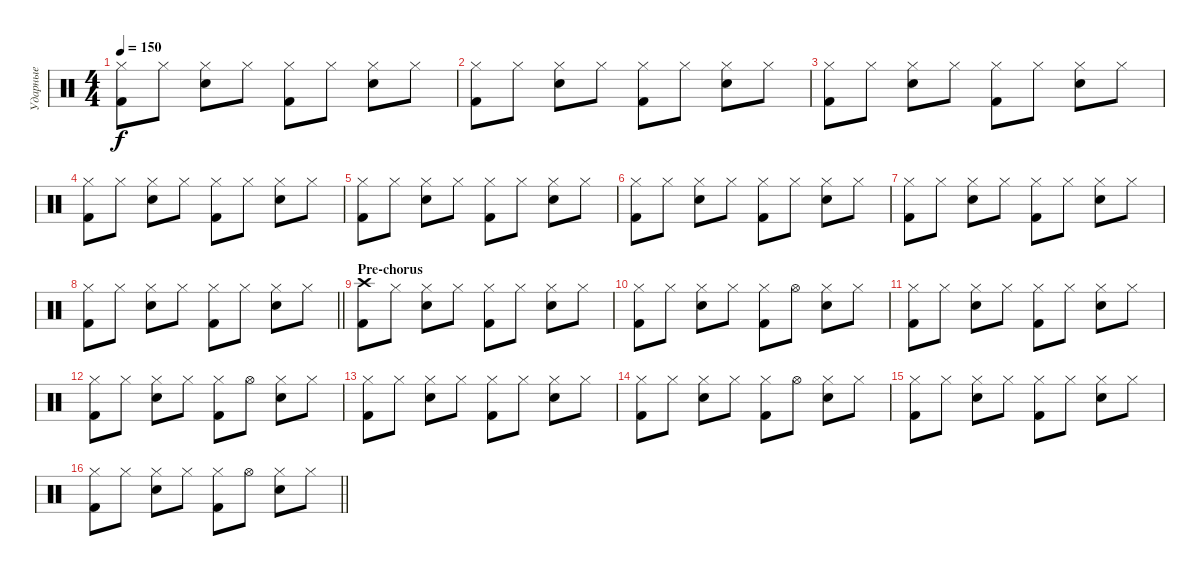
\track ("Ударные" "Ударные") {instrument percussion}
\staff {score}
\articulation defaults
\ts (4 4)
\tempo 150
\clef neutral
\ks c
("Hi-Hat (closed)" "Kick (hit) 2").8{dy f} "Hi-Hat (closed)".8 ("Hi-Hat (closed)" "Electric Snare (hit)").8 "Hi-Hat (closed)".8 ("Hi-Hat (closed)" "Kick (hit) 2").8 "Hi-Hat (closed)".8 ("Hi-Hat (closed)" "Electric Snare (hit)").8 "Hi-Hat (closed)".8 |
("Hi-Hat (closed)" "Kick (hit) 2").8 "Hi-Hat (closed)".8 ("Hi-Hat (closed)" "Electric Snare (hit)").8 "Hi-Hat (closed)".8 ("Hi-Hat (closed)" "Kick (hit) 2").8 "Hi-Hat (closed)".8 ("Hi-Hat (closed)" "Electric Snare (hit)").8 "Hi-Hat (closed)".8 |
("Hi-Hat (closed)" "Kick (hit) 2").8 "Hi-Hat (closed)".8 ("Hi-Hat (closed)" "Electric Snare (hit)").8 "Hi-Hat (closed)".8 ("Hi-Hat (closed)" "Kick (hit) 2").8 "Hi-Hat (closed)".8 ("Hi-Hat (closed)" "Electric Snare (hit)").8 "Hi-Hat (closed)".8 |
("Hi-Hat (closed)" "Kick (hit) 2").8 "Hi-Hat (closed)".8 ("Hi-Hat (closed)" "Electric Snare (hit)").8 "Hi-Hat (closed)".8 ("Hi-Hat (closed)" "Kick (hit) 2").8 "Hi-Hat (closed)".8 ("Hi-Hat (closed)" "Electric Snare (hit)").8 "Hi-Hat (closed)".8 |
("Hi-Hat (closed)" "Kick (hit) 2").8 "Hi-Hat (closed)".8 ("Hi-Hat (closed)" "Electric Snare (hit)").8 "Hi-Hat (closed)".8 ("Hi-Hat (closed)" "Kick (hit) 2").8 "Hi-Hat (closed)".8 ("Hi-Hat (closed)" "Electric Snare (hit)").8 "Hi-Hat (closed)".8 |
("Hi-Hat (closed)" "Kick (hit) 2").8 "Hi-Hat (closed)".8 ("Hi-Hat (closed)" "Electric Snare (hit)").8 "Hi-Hat (closed)".8 ("Hi-Hat (closed)" "Kick (hit) 2").8 "Hi-Hat (closed)".8 ("Hi-Hat (closed)" "Electric Snare (hit)").8 "Hi-Hat (closed)".8 |
("Hi-Hat (closed)" "Kick (hit) 2").8 "Hi-Hat (closed)".8 ("Hi-Hat (closed)" "Electric Snare (hit)").8 "Hi-Hat (closed)".8 ("Hi-Hat (closed)" "Kick (hit) 2").8 "Hi-Hat (closed)".8 ("Hi-Hat (closed)" "Electric Snare (hit)").8 "Hi-Hat (closed)".8 |
\barLineRight lightlight
("Hi-Hat (closed)" "Kick (hit) 2").8 "Hi-Hat (closed)".8 ("Hi-Hat (closed)" "Electric Snare (hit)").8 "Hi-Hat (closed)".8 ("Hi-Hat (closed)" "Kick (hit) 2").8 "Hi-Hat (closed)".8 ("Hi-Hat (closed)" "Electric Snare (hit)").8 "Hi-Hat (closed)".8 |
\section ("" "Pre-chorus")
("Crash high (hit)" "Kick (hit) 2").8 "Hi-Hat (closed)".8 ("Hi-Hat (closed)" "Electric Snare (hit)").8 "Hi-Hat (closed)".8 ("Hi-Hat (closed)" "Kick (hit) 2").8 "Hi-Hat (closed)".8 ("Hi-Hat (closed)" "Electric Snare (hit)").8 "Hi-Hat (closed)".8 |
("Hi-Hat (closed)" "Kick (hit) 2").8 "Hi-Hat (closed)".8 ("Hi-Hat (closed)" "Electric Snare (hit)").8 "Hi-Hat (closed)".8 ("Hi-Hat (closed)" "Kick (hit) 2").8 "Hi-Hat (open)".8 ("Hi-Hat (closed)" "Electric Snare (hit)").8 "Hi-Hat (closed)".8 |
("Hi-Hat (closed)" "Kick (hit) 2").8 "Hi-Hat (closed)".8 ("Hi-Hat (closed)" "Electric Snare (hit)").8 "Hi-Hat (closed)".8 ("Hi-Hat (closed)" "Kick (hit) 2").8 "Hi-Hat (closed)".8 ("Hi-Hat (closed)" "Electric Snare (hit)").8 "Hi-Hat (closed)".8 |
("Hi-Hat (closed)" "Kick (hit) 2").8 "Hi-Hat (closed)".8 ("Hi-Hat (closed)" "Electric Snare (hit)").8 "Hi-Hat (closed)".8 ("Hi-Hat (closed)" "Kick (hit) 2").8 "Hi-Hat (open)".8 ("Hi-Hat (closed)" "Electric Snare (hit)").8 "Hi-Hat (closed)".8 |
("Hi-Hat (closed)" "Kick (hit) 2").8 "Hi-Hat (closed)".8 ("Hi-Hat (closed)" "Electric Snare (hit)").8 "Hi-Hat (closed)".8 ("Hi-Hat (closed)" "Kick (hit) 2").8 "Hi-Hat (closed)".8 ("Hi-Hat (closed)" "Electric Snare (hit)").8 "Hi-Hat (closed)".8 |
("Hi-Hat (closed)" "Kick (hit) 2").8 "Hi-Hat (closed)".8 ("Hi-Hat (closed)" "Electric Snare (hit)").8 "Hi-Hat (closed)".8 ("Hi-Hat (closed)" "Kick (hit) 2").8 "Hi-Hat (open)".8 ("Hi-Hat (closed)" "Electric Snare (hit)").8 "Hi-Hat (closed)".8 |
("Hi-Hat (closed)" "Kick (hit) 2").8 "Hi-Hat (closed)".8 ("Hi-Hat (closed)" "Electric Snare (hit)").8 "Hi-Hat (closed)".8 ("Hi-Hat (closed)" "Kick (hit) 2").8 "Hi-Hat (closed)".8 ("Hi-Hat (closed)" "Electric Snare (hit)").8 "Hi-Hat (closed)".8 |
\barLineRight lightlight
("Hi-Hat (closed)" "Kick (hit) 2").8 "Hi-Hat (closed)".8 ("Hi-Hat (closed)" "Electric Snare (hit)").8 "Hi-Hat (closed)".8 ("Hi-Hat (closed)" "Kick (hit) 2").8 "Hi-Hat (open)".8 ("Hi-Hat (closed)" "Electric Snare (hit)").8 "Hi-Hat (closed)".8
